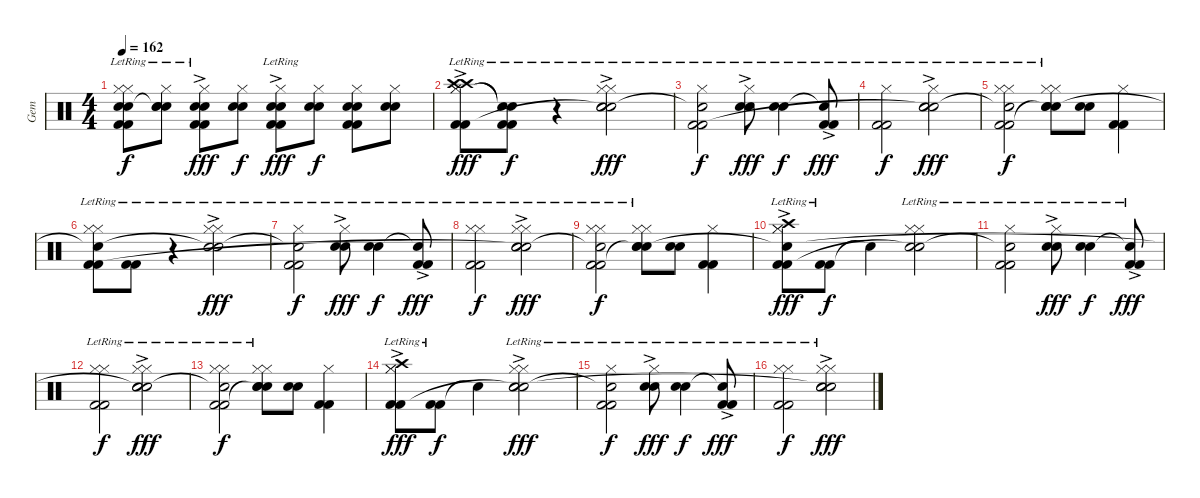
\track ("Gem" "Gem") {instrument percussion}
\staff {score}
\articulation defaults
\ts (4 4)
\tempo 162
\clef neutral
\ks c
("Hi-Hat (closed)"{lr} "Hi-Hat (closed)"{lr} "Electric Snare (hit)"{lr} "Snare (hit) 2" "Kick (hit) 2" "Kick (hit) 2"{lr}).8{dy f} ("Hi-Hat (closed)"{lr} "Electric Snare (hit)" "Snare (hit) 2" "Snare (hit)"{t}).8 ("Hi-Hat (closed)" "Electric Snare (hit)"{lr} "Snare (hit) 2"{ac} "Kick (hit) 2" "Kick (hit) 2").8{dy fff} ("Hi-Hat (closed)" "Electric Snare (hit)" "Snare (hit) 2").8{dy f} ("Hi-Hat (closed)" "Electric Snare (hit)"{lr} "Snare (hit) 2"{ac lr} "Kick (hit) 2" "Kick (hit) 2").8{dy fff} ("Hi-Hat (closed)" "Electric Snare (hit)" "Snare (hit) 2").8{dy f} ("Hi-Hat (closed)" "Electric Snare (hit)" "Snare (hit) 2" "Kick (hit) 2" "Kick (hit) 2").8 ("Hi-Hat (closed)" "Electric Snare (hit)" "Snare (hit) 2").8 |
("Hi-Hat (closed)"{lr} "Hi-Hat (closed)"{lr} "Crash high (hit)"{ac lr} "Crash high (hit)"{ac lr} "Kick (hit) 2" "Kick (hit) 2"{lr}).8{dy fff} ("Snare (hit)"{t} "Snare (hit)"{t} "Kick (hit) 2" "Kick (hit) 2"{lr}).8{dy f} r.4 ("Hi-Hat (closed)"{lr} "Hi-Hat (closed)"{lr} "Snare (hit) 2" "Snare (hit) 2"{ac lr} "Snare (hit)"{t}).2{dy fff} |
("Hi-Hat (closed)"{lr} "Kick (hit) 2" "Snare (hit)"{t} "Kick (hit) 2"{lr}).2{dy f} ("Hi-Hat (closed)"{lr} "Snare (hit) 2" "Snare (hit) 2"{ac lr}).8{dy fff} ("Snare (hit) 2" "Snare (hit) 2"{lr}).4{dy f} ("Kick (hit) 2" "Snare (hit)"{t} "Kick (hit) 2"{ac lr}).8{dy fff} |
("Hi-Hat (closed)"{lr} "Kick (hit) 2"{lr} "Kick (hit) 2"{lr}).2{dy f} ("Hi-Hat (closed)"{lr} "Snare (hit) 2"{lr} "Snare (hit) 2"{ac lr} "Snare (hit)"{t}).2{dy fff} |
("Hi-Hat (closed)"{lr} "Hi-Hat (closed)"{lr} "Kick (hit) 2" "Snare (hit)"{t} "Kick (hit) 2"{lr}).2{dy f} ("Hi-Hat (closed)"{lr} "Hi-Hat (closed)"{lr} "Snare (hit) 2" "Snare (hit) 2"{lr} "Snare (hit)"{t}).8 ("Snare (hit) 2" "Snare (hit) 2").8 ("Hi-Hat (closed)" "Kick (hit) 2" "Kick (hit) 2").4 |
("Hi-Hat (closed)"{lr} "Hi-Hat (closed)"{lr} "Kick (hit) 2" "Snare (hit)"{t} "Kick (hit) 2"{lr}).8 ("Kick (hit) 2" "Kick (hit) 2"{lr}).8 r.4 ("Hi-Hat (closed)"{lr} "Hi-Hat (closed)"{lr} "Snare (hit) 2"{ac lr} "Snare (hit)"{t}).2{dy fff} |
("Hi-Hat (closed)"{lr} "Kick (hit) 2" "Snare (hit)"{t} "Kick (hit) 2"{lr}).2{dy f} ("Hi-Hat (closed)"{lr} "Snare (hit) 2" "Snare (hit) 2"{ac lr}).8{dy fff} ("Snare (hit) 2" "Snare (hit) 2"{lr}).4{dy f} ("Kick (hit) 2" "Snare (hit)"{t} "Kick (hit) 2"{ac lr}).8{dy fff} |
("Hi-Hat (closed)"{lr} "Hi-Hat (closed)"{lr} "Kick (hit) 2" "Kick (hit) 2"{lr}).2{dy f} ("Hi-Hat (closed)"{lr} "Hi-Hat (closed)"{lr} "Snare (hit) 2" "Snare (hit) 2"{ac lr} "Snare (hit)"{t}).2{dy fff} |
("Hi-Hat (closed)"{lr} "Hi-Hat (closed)"{lr} "Kick (hit) 2" "Snare (hit)"{t} "Kick (hit) 2"{lr}).2{dy f} ("Hi-Hat (closed)"{lr} "Hi-Hat (closed)"{lr} "Snare (hit) 2" "Snare (hit) 2"{lr} "Snare (hit)"{t}).8 ("Snare (hit) 2" "Snare (hit) 2").8 ("Hi-Hat (closed)" "Kick (hit) 2" "Kick (hit) 2").4 |
("Hi-Hat (closed)"{lr} "Hi-Hat (closed)"{lr} "Crash high (hit)"{ac lr} "Kick (hit) 2" "Snare (hit)"{t} "Kick (hit) 2"{lr}).8{dy fff} ("Kick (hit) 2" "Kick (hit) 2"{lr}).8{dy f} "Snare (hit)"{t}.4 ("Hi-Hat (closed)"{lr} "Hi-Hat (closed)"{lr} "Snare (hit) 2" "Snare (hit)"{t}).2 |
("Hi-Hat (closed)"{lr} "Kick (hit) 2" "Snare (hit)"{t} "Kick (hit) 2"{lr}).2 ("Hi-Hat (closed)"{lr} "Snare (hit) 2" "Snare (hit) 2"{ac lr}).8{dy fff} ("Snare (hit) 2" "Snare (hit) 2"{lr}).4{dy f} ("Kick (hit) 2" "Snare (hit)"{t} "Kick (hit) 2"{ac lr}).8{dy fff} |
("Hi-Hat (closed)"{lr} "Hi-Hat (closed)"{lr} "Kick (hit) 2" "Kick (hit) 2"{lr}).2{dy f} ("Hi-Hat (closed)"{lr} "Hi-Hat (closed)"{lr} "Snare (hit) 2" "Snare (hit) 2"{ac lr} "Snare (hit)"{t}).2{dy fff} |
("Hi-Hat (closed)"{lr} "Hi-Hat (closed)"{lr} "Kick (hit) 2" "Snare (hit)"{t} "Kick (hit) 2"{lr}).2{dy f} ("Hi-Hat (closed)"{lr} "Hi-Hat (closed)"{lr} "Snare (hit) 2" "Snare (hit) 2"{lr} "Snare (hit)"{t}).8 ("Snare (hit) 2" "Snare (hit) 2").8 ("Hi-Hat (closed)" "Kick (hit) 2" "Kick (hit) 2").4 |
("Hi-Hat (closed)"{lr} "Hi-Hat (closed)"{lr} "Crash high (hit)"{ac lr} "Kick (hit) 2" "Kick (hit) 2"{lr}).8{dy fff} ("Kick (hit) 2" "Kick (hit) 2"{lr}).8{dy f} "Snare (hit)"{t}.4 ("Hi-Hat (closed)"{lr} "Hi-Hat (closed)"{lr} "Snare (hit) 2" "Snare (hit) 2"{ac lr} "Snare (hit)"{t}).2{dy fff} |
("Hi-Hat (closed)"{lr} "Kick (hit) 2" "Snare (hit)"{t} "Kick (hit) 2"{lr}).2{dy f} ("Hi-Hat (closed)"{lr} "Snare (hit) 2" "Snare (hit) 2"{ac lr}).8{dy fff} ("Snare (hit) 2" "Snare (hit) 2"{lr}).4{dy f} ("Kick (hit) 2" "Snare (hit)"{t} "Kick (hit) 2"{ac lr}).8{dy fff} |
("Hi-Hat (closed)"{lr} "Hi-Hat (closed)"{lr} "Kick (hit) 2" "Kick (hit) 2"{lr}).2{dy f} ("Hi-Hat (closed)"{lr} "Hi-Hat (closed)"{lr} "Snare (hit) 2" "Snare (hit) 2"{ac lr} "Snare (hit)"{t}).2{dy fff}
